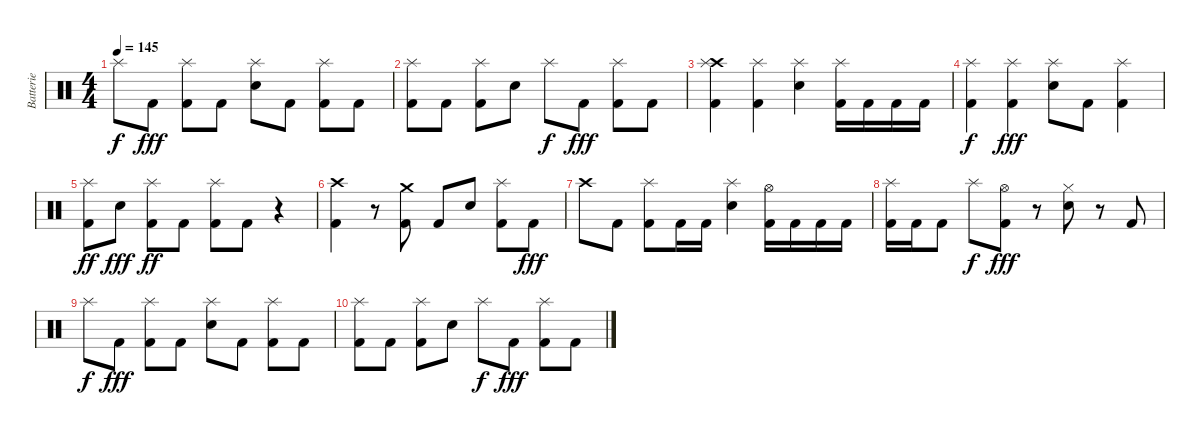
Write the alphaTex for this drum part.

\track ("Batterie" "Batterie") {instrument percussion}
\staff {score}
\articulation defaults
\ts (4 4)
\tempo 145
\clef neutral
\ks c "Splash (hit)".8{dy f} "Kick (hit) 2".8{dy fff}
("Splash (hit)" "Kick (hit) 2").8 "Kick (hit) 2".8 ("Splash (hit)" "Electric Snare (hit)").8 "Kick (hit) 2".8 ("Splash (hit)" "Kick (hit) 2").8 "Kick (hit) 2".8 |
("Splash (hit)" "Kick (hit) 2").8 "Kick (hit) 2".8 ("Splash (hit)" "Kick (hit) 2").8 "Electric Snare (hit)".8 "Splash (hit)".8{dy f} "Kick (hit) 2".8{dy fff} ("Splash (hit)" "Kick (hit) 2").8 "Kick (hit) 2".8 |
("Crash high (hit)" "Splash (hit)" "Kick (hit) 2").4 ("Splash (hit)" "Kick (hit) 2").4 ("Splash (hit)" "Electric Snare (hit)").4 ("Splash (hit)" "Kick (hit) 2").16 "Kick (hit) 2".16 "Kick (hit) 2".16 "Kick (hit) 2".16 |
("Splash (hit)" "Kick (hit) 2").4{dy f} ("Splash (hit)" "Kick (hit) 2").4{dy fff} ("Splash (hit)" "Electric Snare (hit)").8 "Kick (hit) 2".8 ("Splash (hit)" "Kick (hit) 2").4 |
("Splash (hit)" "Kick (hit) 2").8{dy ff} "Electric Snare (hit)".8{dy fff} ("Splash (hit)" "Kick (hit) 2").8{dy ff} "Kick (hit) 2".8 ("Splash (hit)" "Kick (hit) 2").8 "Kick (hit) 2".8 r.4 |
("Crash high (hit)" "Kick (hit) 2").4 r.8 ("Crash medium (hit)" "Kick (hit) 2").8 "Kick (hit) 2".8 "Electric Snare (hit)".8 ("Splash (hit)" "Kick (hit) 2").8 "Kick (hit) 2".8{dy fff} |
"Crash high (hit)".8 "Kick (hit) 2".8 ("Splash (hit)" "Kick (hit) 2").8 "Kick (hit) 2".16 "Kick (hit) 2".16 ("Splash (hit)" "Electric Snare (hit)").4 ("Hi-Hat (open)" "Kick (hit) 2").16 "Kick (hit) 2".16 "Kick (hit) 2".16 "Kick (hit) 2".16 |
("Splash (hit)" "Kick (hit) 2").16 "Kick (hit) 2".16 "Kick (hit) 2".8 "Splash (hit)".8{dy f} ("Hi-Hat (open)" "Kick (hit) 2").8{dy fff} r.8 ("Hi-Hat (closed)" "Electric Snare (hit)").8 r.8 "Kick (hit) 2".8 |
"Splash (hit)".8{dy f} "Kick (hit) 2".8{dy fff} ("Splash (hit)" "Kick (hit) 2").8 "Kick (hit) 2".8 ("Splash (hit)" "Electric Snare (hit)").8 "Kick (hit) 2".8 ("Splash (hit)" "Kick (hit) 2").8 "Kick (hit) 2".8 |
("Splash (hit)" "Kick (hit) 2").8 "Kick (hit) 2".8 ("Splash (hit)" "Kick (hit) 2").8 "Electric Snare (hit)".8 "Splash (hit)".8{dy f} "Kick (hit) 2".8{dy fff} ("Splash (hit)" "Kick (hit) 2").8 "Kick (hit) 2".8
